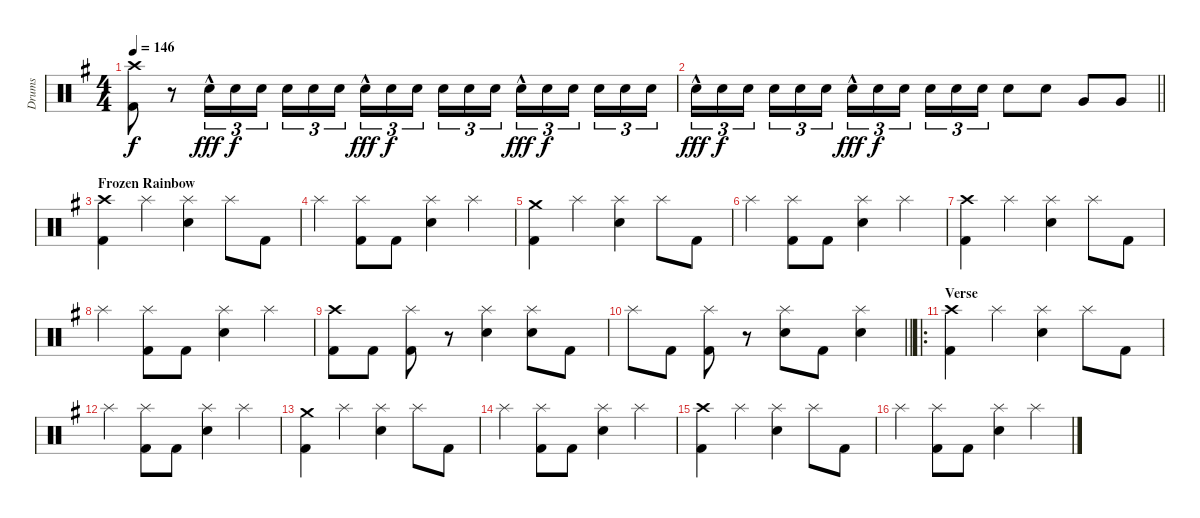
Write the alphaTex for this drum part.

\track ("Drums" "Drums") {instrument percussion}
\staff {score}
\articulation defaults
\ts (4 4)
\tempo 146
\clef neutral
\ks eminor
("Crash high (hit)" "Kick (hit) 2").8{dy f} r.8{volume 6} "Electric Snare (hit)"{hac}.16{tu (3 2) dy fff volume 11} "Electric Snare (hit)".16{tu (3 2) dy f} "Electric Snare (hit)".16{tu (3 2) beam splitsecondary} "Electric Snare (hit)".16{tu (3 2)} "Electric Snare (hit)".16{tu (3 2)} "Electric Snare (hit)".16{tu (3 2)} "Electric Snare (hit)"{hac}.16{tu (3 2) dy fff} "Electric Snare (hit)".16{tu (3 2) dy f} "Electric Snare (hit)".16{tu (3 2) beam splitsecondary} "Electric Snare (hit)".16{tu (3 2)} "Electric Snare (hit)".16{tu (3 2)} "Electric Snare (hit)".16{tu (3 2)} "Electric Snare (hit)"{hac}.16{tu (3 2) dy fff} "Electric Snare (hit)".16{tu (3 2) dy f} "Electric Snare (hit)".16{tu (3 2) beam splitsecondary} "Electric Snare (hit)".16{tu (3 2)} "Electric Snare (hit)".16{tu (3 2)} "Electric Snare (hit)".16{tu (3 2)} |
\barLineRight lightlight "Electric Snare (hit)"{hac}.16{tu (3 2) dy fff} "Electric Snare (hit)".16{tu (3 2) dy f} "Electric Snare (hit)".16{tu (3 2) beam splitsecondary} "Electric Snare (hit)".16{tu (3 2)} "Electric Snare (hit)".16{tu (3 2)} "Electric Snare (hit)".16{tu (3 2)} "Electric Snare (hit)"{hac}.16{tu (3 2) dy fff} "Electric Snare (hit)".16{tu (3 2) dy f} "Electric Snare (hit)".16{tu (3 2) beam splitsecondary} "Electric Snare (hit)".16{tu (3 2)} "Electric Snare (hit)".16{tu (3 2)} "Electric Snare (hit)".16{tu (3 2)} "Electric Snare (hit)".8 "Electric Snare (hit)".8 "Very Low Tom (hit)".8 "Very Low Tom (hit)".8
|
\section ("" "Frozen Rainbow")
("Crash high (hit)" "Kick (hit) 2").4 "Splash (hit)".4 ("Splash (hit)" "Snare (hit) 2").4 "Splash (hit)".8 "Kick (hit) 2".8 |
"Splash (hit)".4 ("Splash (hit)" "Kick (hit) 2").8 "Kick (hit) 2".8 ("Splash (hit)" "Snare (hit) 2").4 "Splash (hit)".4 |
("Crash medium (hit)" "Kick (hit) 2").4 "Splash (hit)".4 ("Splash (hit)" "Snare (hit) 2").4 "Splash (hit)".8 "Kick (hit) 2".8 |
"Splash (hit)".4 ("Splash (hit)" "Kick (hit) 2").8 "Kick (hit) 2".8 ("Splash (hit)" "Snare (hit) 2").4 "Splash (hit)".4 |
("Crash high (hit)" "Kick (hit) 2").4 "Splash (hit)".4 ("Splash (hit)" "Snare (hit) 2").4 "Splash (hit)".8 "Kick (hit) 2".8 |
"Splash (hit)".4 ("Splash (hit)" "Kick (hit) 2").8 "Kick (hit) 2".8 ("Splash (hit)" "Snare (hit) 2").4 "Splash (hit)".4 |
("Crash high (hit)" "Kick (hit) 2").8 "Kick (hit) 2".8 ("Splash (hit)" "Kick (hit) 2").8 r.8 ("Splash (hit)" "Snare (hit) 2").4 ("Splash (hit)" "Snare (hit) 2").8 "Kick (hit) 2".8 |
\barLineRight lightlight "Splash (hit)".8 "Kick (hit) 2".8
("Splash (hit)" "Kick (hit) 2").8 r.8 ("Splash (hit)" "Snare (hit) 2").8 "Kick (hit) 2".8 ("Splash (hit)" "Snare (hit) 2").4 |
\ro
\section ("" "Verse")
("Crash high (hit)" "Kick (hit) 2").4 "Splash (hit)".4 ("Splash (hit)" "Snare (hit) 2").4 "Splash (hit)".8 "Kick (hit) 2".8 |
"Splash (hit)".4 ("Splash (hit)" "Kick (hit) 2").8 "Kick (hit) 2".8 ("Splash (hit)" "Snare (hit) 2").4 "Splash (hit)".4 |
("Crash medium (hit)" "Kick (hit) 2").4 "Splash (hit)".4 ("Splash (hit)" "Snare (hit) 2").4 "Splash (hit)".8 "Kick (hit) 2".8 |
"Splash (hit)".4 ("Splash (hit)" "Kick (hit) 2").8 "Kick (hit) 2".8 ("Splash (hit)" "Snare (hit) 2").4 "Splash (hit)".4 |
("Crash high (hit)" "Kick (hit) 2").4 "Splash (hit)".4 ("Splash (hit)" "Snare (hit) 2").4 "Splash (hit)".8 "Kick (hit) 2".8 |
"Splash (hit)".4 ("Splash (hit)" "Kick (hit) 2").8 "Kick (hit) 2".8 ("Splash (hit)" "Snare (hit) 2").4 "Splash (hit)".4
